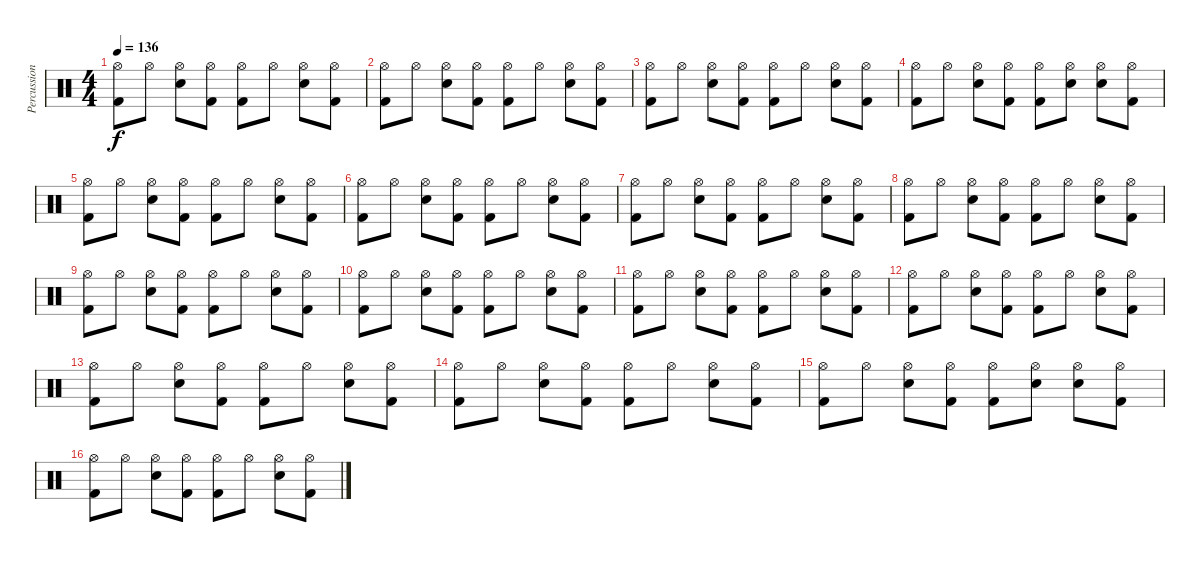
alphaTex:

\track ("Percussion" "Percussion") {instrument percussion}
\staff {score}
\articulation defaults
\ts (4 4)
\tempo 136
\clef neutral
\ks c
("Hi-Hat (open)" "Kick (hit) 2").8{dy f} "Hi-Hat (open)".8 ("Hi-Hat (open)" "Electric Snare (hit)").8 ("Hi-Hat (open)" "Kick (hit) 2").8 ("Hi-Hat (open)" "Kick (hit) 2").8 "Hi-Hat (open)".8 ("Hi-Hat (open)" "Electric Snare (hit)").8 ("Hi-Hat (open)" "Kick (hit) 2").8 |
("Hi-Hat (open)" "Kick (hit) 2").8 "Hi-Hat (open)".8 ("Hi-Hat (open)" "Electric Snare (hit)").8 ("Hi-Hat (open)" "Kick (hit) 2").8 ("Hi-Hat (open)" "Kick (hit) 2").8 "Hi-Hat (open)".8 ("Hi-Hat (open)" "Electric Snare (hit)").8 ("Hi-Hat (open)" "Kick (hit) 2").8 |
("Hi-Hat (open)" "Kick (hit) 2").8 "Hi-Hat (open)".8 ("Hi-Hat (open)" "Electric Snare (hit)").8 ("Hi-Hat (open)" "Kick (hit) 2").8 ("Hi-Hat (open)" "Kick (hit) 2").8 "Hi-Hat (open)".8 ("Hi-Hat (open)" "Electric Snare (hit)").8 ("Hi-Hat (open)" "Kick (hit) 2").8 |
("Hi-Hat (open)" "Kick (hit) 2").8 "Hi-Hat (open)".8 ("Hi-Hat (open)" "Electric Snare (hit)").8 ("Hi-Hat (open)" "Kick (hit) 2").8 ("Hi-Hat (open)" "Kick (hit) 2").8 ("Hi-Hat (open)" "Electric Snare (hit)").8 ("Hi-Hat (open)" "Electric Snare (hit)").8 ("Hi-Hat (open)" "Kick (hit) 2").8 |
("Hi-Hat (open)" "Kick (hit) 2").8 "Hi-Hat (open)".8 ("Hi-Hat (open)" "Electric Snare (hit)").8 ("Hi-Hat (open)" "Kick (hit) 2").8 ("Hi-Hat (open)" "Kick (hit) 2").8 "Hi-Hat (open)".8 ("Hi-Hat (open)" "Electric Snare (hit)").8 ("Hi-Hat (open)" "Kick (hit) 2").8 |
("Hi-Hat (open)" "Kick (hit) 2").8 "Hi-Hat (open)".8 ("Hi-Hat (open)" "Electric Snare (hit)").8 ("Hi-Hat (open)" "Kick (hit) 2").8 ("Hi-Hat (open)" "Kick (hit) 2").8 "Hi-Hat (open)".8 ("Hi-Hat (open)" "Electric Snare (hit)").8 ("Hi-Hat (open)" "Kick (hit) 2").8 |
("Hi-Hat (open)" "Kick (hit) 2").8 "Hi-Hat (open)".8 ("Hi-Hat (open)" "Electric Snare (hit)").8 ("Hi-Hat (open)" "Kick (hit) 2").8 ("Hi-Hat (open)" "Kick (hit) 2").8 "Hi-Hat (open)".8 ("Hi-Hat (open)" "Electric Snare (hit)").8 ("Hi-Hat (open)" "Kick (hit) 2").8 |
("Hi-Hat (open)" "Kick (hit) 2").8 "Hi-Hat (open)".8 ("Hi-Hat (open)" "Electric Snare (hit)").8 ("Hi-Hat (open)" "Kick (hit) 2").8 ("Hi-Hat (open)" "Kick (hit) 2").8 "Hi-Hat (open)".8 ("Hi-Hat (open)" "Electric Snare (hit)").8 ("Hi-Hat (open)" "Kick (hit) 2").8 |
("Hi-Hat (open)" "Kick (hit) 2").8 "Hi-Hat (open)".8 ("Hi-Hat (open)" "Electric Snare (hit)").8 ("Hi-Hat (open)" "Kick (hit) 2").8 ("Hi-Hat (open)" "Kick (hit) 2").8 "Hi-Hat (open)".8 ("Hi-Hat (open)" "Electric Snare (hit)").8 ("Hi-Hat (open)" "Kick (hit) 2").8 |
("Hi-Hat (open)" "Kick (hit) 2").8 "Hi-Hat (open)".8 ("Hi-Hat (open)" "Electric Snare (hit)").8 ("Hi-Hat (open)" "Kick (hit) 2").8 ("Hi-Hat (open)" "Kick (hit) 2").8 "Hi-Hat (open)".8 ("Hi-Hat (open)" "Electric Snare (hit)").8 ("Hi-Hat (open)" "Kick (hit) 2").8 |
("Hi-Hat (open)" "Kick (hit) 2").8 "Hi-Hat (open)".8 ("Hi-Hat (open)" "Electric Snare (hit)").8 ("Hi-Hat (open)" "Kick (hit) 2").8 ("Hi-Hat (open)" "Kick (hit) 2").8 "Hi-Hat (open)".8 ("Hi-Hat (open)" "Electric Snare (hit)").8 ("Hi-Hat (open)" "Kick (hit) 2").8 |
("Hi-Hat (open)" "Kick (hit) 2").8 "Hi-Hat (open)".8 ("Hi-Hat (open)" "Electric Snare (hit)").8 ("Hi-Hat (open)" "Kick (hit) 2").8 ("Hi-Hat (open)" "Kick (hit) 2").8 "Hi-Hat (open)".8 ("Hi-Hat (open)" "Electric Snare (hit)").8 ("Hi-Hat (open)" "Kick (hit) 2").8 |
("Hi-Hat (open)" "Kick (hit) 2").8 "Hi-Hat (open)".8 ("Hi-Hat (open)" "Electric Snare (hit)").8 ("Hi-Hat (open)" "Kick (hit) 2").8 ("Hi-Hat (open)" "Kick (hit) 2").8 "Hi-Hat (open)".8 ("Hi-Hat (open)" "Electric Snare (hit)").8 ("Hi-Hat (open)" "Kick (hit) 2").8 |
("Hi-Hat (open)" "Kick (hit) 2").8 "Hi-Hat (open)".8 ("Hi-Hat (open)" "Electric Snare (hit)").8 ("Hi-Hat (open)" "Kick (hit) 2").8 ("Hi-Hat (open)" "Kick (hit) 2").8 "Hi-Hat (open)".8 ("Hi-Hat (open)" "Electric Snare (hit)").8 ("Hi-Hat (open)" "Kick (hit) 2").8 |
("Hi-Hat (open)" "Kick (hit) 2").8 "Hi-Hat (open)".8 ("Hi-Hat (open)" "Electric Snare (hit)").8 ("Hi-Hat (open)" "Kick (hit) 2").8 ("Hi-Hat (open)" "Kick (hit) 2").8 ("Hi-Hat (open)" "Electric Snare (hit)").8 ("Hi-Hat (open)" "Electric Snare (hit)").8 ("Hi-Hat (open)" "Kick (hit) 2").8 |
("Hi-Hat (open)" "Kick (hit) 2").8 "Hi-Hat (open)".8 ("Hi-Hat (open)" "Electric Snare (hit)").8 ("Hi-Hat (open)" "Kick (hit) 2").8 ("Hi-Hat (open)" "Kick (hit) 2").8 "Hi-Hat (open)".8 ("Hi-Hat (open)" "Electric Snare (hit)").8 ("Hi-Hat (open)" "Kick (hit) 2").8
